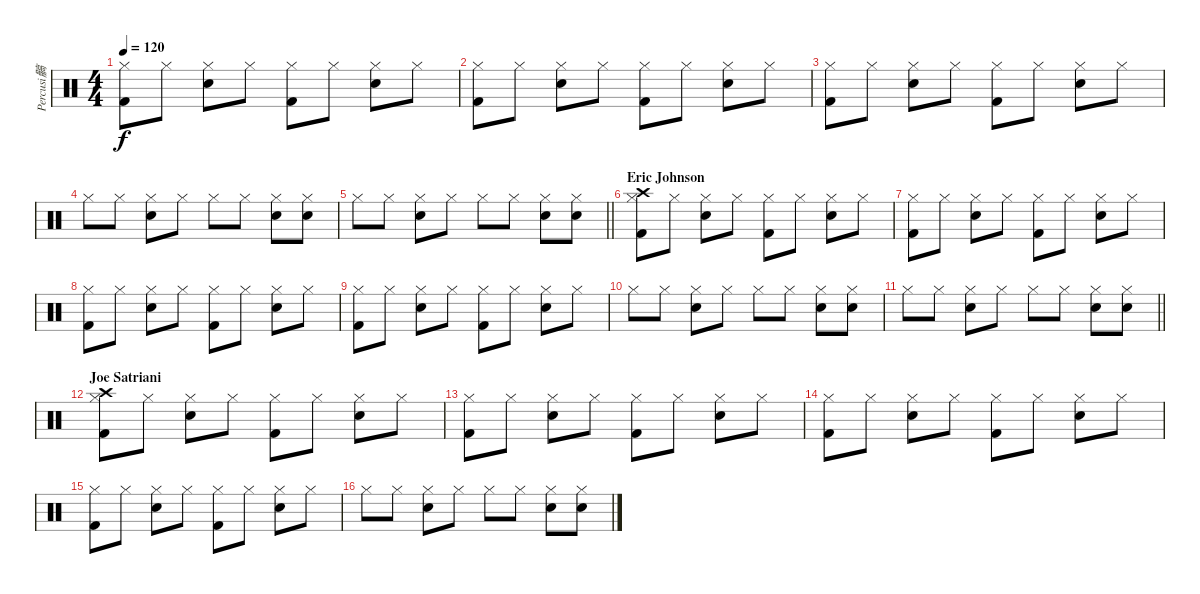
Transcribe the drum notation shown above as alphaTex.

\track ("Percusi髇" "Percusi髇") {instrument percussion}
\staff {score}
\articulation defaults
\ts (4 4)
\tempo 120
\clef neutral
\ks c
("Kick (hit) 2" "Hi-Hat (closed)").8{dy f} "Hi-Hat (closed)".8 ("Electric Snare (hit)" "Hi-Hat (closed)").8 "Hi-Hat (closed)".8 ("Kick (hit) 2" "Hi-Hat (closed)").8 "Hi-Hat (closed)".8 ("Electric Snare (hit)" "Hi-Hat (closed)").8 "Hi-Hat (closed)".8 |
("Kick (hit) 2" "Hi-Hat (closed)").8 "Hi-Hat (closed)".8 ("Electric Snare (hit)" "Hi-Hat (closed)").8 "Hi-Hat (closed)".8 ("Kick (hit) 2" "Hi-Hat (closed)").8 "Hi-Hat (closed)".8 ("Electric Snare (hit)" "Hi-Hat (closed)").8 "Hi-Hat (closed)".8 |
("Kick (hit) 2" "Hi-Hat (closed)").8 "Hi-Hat (closed)".8 ("Electric Snare (hit)" "Hi-Hat (closed)").8 "Hi-Hat (closed)".8 ("Kick (hit) 2" "Hi-Hat (closed)").8 "Hi-Hat (closed)".8 ("Electric Snare (hit)" "Hi-Hat (closed)").8 "Hi-Hat (closed)".8 |
"Hi-Hat (closed)".8 "Hi-Hat (closed)".8 ("Electric Snare (hit)" "Hi-Hat (closed)").8 "Hi-Hat (closed)".8 "Hi-Hat (closed)".8 "Hi-Hat (closed)".8 ("Electric Snare (hit)" "Hi-Hat (closed)").8 ("Electric Snare (hit)" "Hi-Hat (closed)").8 |
\barLineRight lightlight "Hi-Hat (closed)".8 "Hi-Hat (closed)".8
("Electric Snare (hit)" "Hi-Hat (closed)").8 "Hi-Hat (closed)".8 "Hi-Hat (closed)".8 "Hi-Hat (closed)".8 ("Electric Snare (hit)" "Hi-Hat (closed)").8 ("Electric Snare (hit)" "Hi-Hat (closed)").8 |
\section ("" "Eric Johnson")
("Kick (hit) 2" "Hi-Hat (closed)" "Crash high (hit)").8 "Hi-Hat (closed)".8 ("Electric Snare (hit)" "Hi-Hat (closed)").8 "Hi-Hat (closed)".8 ("Kick (hit) 2" "Hi-Hat (closed)").8 "Hi-Hat (closed)".8 ("Electric Snare (hit)" "Hi-Hat (closed)").8 "Hi-Hat (closed)".8 |
("Kick (hit) 2" "Hi-Hat (closed)").8 "Hi-Hat (closed)".8 ("Electric Snare (hit)" "Hi-Hat (closed)").8 "Hi-Hat (closed)".8 ("Kick (hit) 2" "Hi-Hat (closed)").8 "Hi-Hat (closed)".8 ("Electric Snare (hit)" "Hi-Hat (closed)").8 "Hi-Hat (closed)".8 |
("Kick (hit) 2" "Hi-Hat (closed)").8 "Hi-Hat (closed)".8 ("Electric Snare (hit)" "Hi-Hat (closed)").8 "Hi-Hat (closed)".8 ("Kick (hit) 2" "Hi-Hat (closed)").8 "Hi-Hat (closed)".8 ("Electric Snare (hit)" "Hi-Hat (closed)").8 "Hi-Hat (closed)".8 |
("Kick (hit) 2" "Hi-Hat (closed)").8 "Hi-Hat (closed)".8 ("Electric Snare (hit)" "Hi-Hat (closed)").8 "Hi-Hat (closed)".8 ("Kick (hit) 2" "Hi-Hat (closed)").8 "Hi-Hat (closed)".8 ("Electric Snare (hit)" "Hi-Hat (closed)").8 "Hi-Hat (closed)".8 |
"Hi-Hat (closed)".8 "Hi-Hat (closed)".8 ("Electric Snare (hit)" "Hi-Hat (closed)").8 "Hi-Hat (closed)".8 "Hi-Hat (closed)".8 "Hi-Hat (closed)".8 ("Electric Snare (hit)" "Hi-Hat (closed)").8 ("Electric Snare (hit)" "Hi-Hat (closed)").8 |
\barLineRight lightlight "Hi-Hat (closed)".8 "Hi-Hat (closed)".8
("Electric Snare (hit)" "Hi-Hat (closed)").8 "Hi-Hat (closed)".8 "Hi-Hat (closed)".8 "Hi-Hat (closed)".8 ("Electric Snare (hit)" "Hi-Hat (closed)").8 ("Electric Snare (hit)" "Hi-Hat (closed)").8 |
\section ("" "Joe Satriani")
("Kick (hit) 2" "Hi-Hat (closed)" "Crash high (hit)").8 "Hi-Hat (closed)".8 ("Electric Snare (hit)" "Hi-Hat (closed)").8 "Hi-Hat (closed)".8 ("Kick (hit) 2" "Hi-Hat (closed)").8 "Hi-Hat (closed)".8 ("Electric Snare (hit)" "Hi-Hat (closed)").8 "Hi-Hat (closed)".8 |
("Kick (hit) 2" "Hi-Hat (closed)").8 "Hi-Hat (closed)".8 ("Electric Snare (hit)" "Hi-Hat (closed)").8 "Hi-Hat (closed)".8 ("Kick (hit) 2" "Hi-Hat (closed)").8 "Hi-Hat (closed)".8 ("Electric Snare (hit)" "Hi-Hat (closed)").8 "Hi-Hat (closed)".8 |
("Kick (hit) 2" "Hi-Hat (closed)").8 "Hi-Hat (closed)".8 ("Electric Snare (hit)" "Hi-Hat (closed)").8 "Hi-Hat (closed)".8 ("Kick (hit) 2" "Hi-Hat (closed)").8 "Hi-Hat (closed)".8 ("Electric Snare (hit)" "Hi-Hat (closed)").8 "Hi-Hat (closed)".8 |
("Kick (hit) 2" "Hi-Hat (closed)").8 "Hi-Hat (closed)".8 ("Electric Snare (hit)" "Hi-Hat (closed)").8 "Hi-Hat (closed)".8 ("Kick (hit) 2" "Hi-Hat (closed)").8 "Hi-Hat (closed)".8 ("Electric Snare (hit)" "Hi-Hat (closed)").8 "Hi-Hat (closed)".8 |
"Hi-Hat (closed)".8 "Hi-Hat (closed)".8 ("Electric Snare (hit)" "Hi-Hat (closed)").8 "Hi-Hat (closed)".8 "Hi-Hat (closed)".8 "Hi-Hat (closed)".8 ("Electric Snare (hit)" "Hi-Hat (closed)").8 ("Electric Snare (hit)" "Hi-Hat (closed)").8
